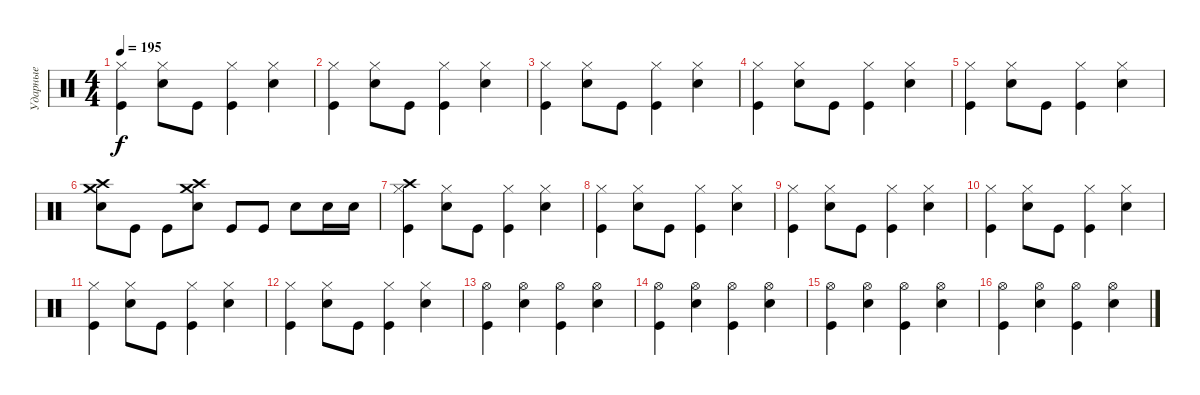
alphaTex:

\track ("Ударные" "Ударные") {instrument percussion}
\staff {score}
\articulation defaults
\ts (4 4)
\tempo 195
\clef neutral
\ks c
("Hi-Hat (closed)" "Kick (hit)").4{dy f} ("Hi-Hat (closed)" "Electric Snare (hit)").8 "Kick (hit)".8 ("Hi-Hat (closed)" "Kick (hit)").4 ("Hi-Hat (closed)" "Electric Snare (hit)").4 |
("Hi-Hat (closed)" "Kick (hit)").4 ("Hi-Hat (closed)" "Electric Snare (hit)").8 "Kick (hit)".8 ("Hi-Hat (closed)" "Kick (hit)").4 ("Hi-Hat (closed)" "Electric Snare (hit)").4 |
("Hi-Hat (closed)" "Kick (hit)").4 ("Hi-Hat (closed)" "Electric Snare (hit)").8 "Kick (hit)".8 ("Hi-Hat (closed)" "Kick (hit)").4 ("Hi-Hat (closed)" "Electric Snare (hit)").4 |
("Hi-Hat (closed)" "Kick (hit)").4 ("Hi-Hat (closed)" "Electric Snare (hit)").8 "Kick (hit)".8 ("Hi-Hat (closed)" "Kick (hit)").4 ("Hi-Hat (closed)" "Electric Snare (hit)").4 |
("Hi-Hat (closed)" "Kick (hit)").4 ("Hi-Hat (closed)" "Electric Snare (hit)").8 "Kick (hit)".8 ("Hi-Hat (closed)" "Kick (hit)").4 ("Hi-Hat (closed)" "Electric Snare (hit)").4 |
("Crash medium (hit)" "Crash high (hit)" "Electric Snare (hit)").8 "Kick (hit)".8 "Kick (hit)".8 ("Crash high (hit)" "Electric Snare (hit)" "Crash medium (hit)").8 "Kick (hit)".8 "Kick (hit)".8 "Electric Snare (hit)".8 "Electric Snare (hit)".16 "Electric Snare (hit)".16 |
("Hi-Hat (closed)" "Kick (hit)" "Crash high (hit)").4 ("Hi-Hat (closed)" "Electric Snare (hit)").8 "Kick (hit)".8 ("Hi-Hat (closed)" "Kick (hit)").4 ("Hi-Hat (closed)" "Electric Snare (hit)").4 |
("Hi-Hat (closed)" "Kick (hit)").4 ("Hi-Hat (closed)" "Electric Snare (hit)").8 "Kick (hit)".8 ("Hi-Hat (closed)" "Kick (hit)").4 ("Hi-Hat (closed)" "Electric Snare (hit)").4 |
("Hi-Hat (closed)" "Kick (hit)").4 ("Hi-Hat (closed)" "Electric Snare (hit)").8 "Kick (hit)".8 ("Hi-Hat (closed)" "Kick (hit)").4 ("Hi-Hat (closed)" "Electric Snare (hit)").4 |
("Hi-Hat (closed)" "Kick (hit)").4 ("Hi-Hat (closed)" "Electric Snare (hit)").8 "Kick (hit)".8 ("Hi-Hat (closed)" "Kick (hit)").4 ("Hi-Hat (closed)" "Electric Snare (hit)").4 |
("Hi-Hat (closed)" "Kick (hit)").4 ("Hi-Hat (closed)" "Electric Snare (hit)").8 "Kick (hit)".8 ("Hi-Hat (closed)" "Kick (hit)").4 ("Hi-Hat (closed)" "Electric Snare (hit)").4 |
("Hi-Hat (closed)" "Kick (hit)").4 ("Hi-Hat (closed)" "Electric Snare (hit)").8 "Kick (hit)".8 ("Hi-Hat (closed)" "Kick (hit)").4 ("Hi-Hat (closed)" "Electric Snare (hit)").4 |
("Hi-Hat (open)" "Kick (hit)").4 ("Hi-Hat (open)" "Electric Snare (hit)").4 ("Hi-Hat (open)" "Kick (hit)").4 ("Hi-Hat (open)" "Electric Snare (hit)").4 |
("Hi-Hat (open)" "Kick (hit)").4 ("Hi-Hat (open)" "Electric Snare (hit)").4 ("Hi-Hat (open)" "Kick (hit)").4 ("Hi-Hat (open)" "Electric Snare (hit)").4 |
("Hi-Hat (open)" "Kick (hit)").4 ("Hi-Hat (open)" "Electric Snare (hit)").4 ("Hi-Hat (open)" "Kick (hit)").4 ("Hi-Hat (open)" "Electric Snare (hit)").4 |
("Hi-Hat (open)" "Kick (hit)").4 ("Hi-Hat (open)" "Electric Snare (hit)").4 ("Hi-Hat (open)" "Kick (hit)").4 ("Hi-Hat (open)" "Electric Snare (hit)").4
